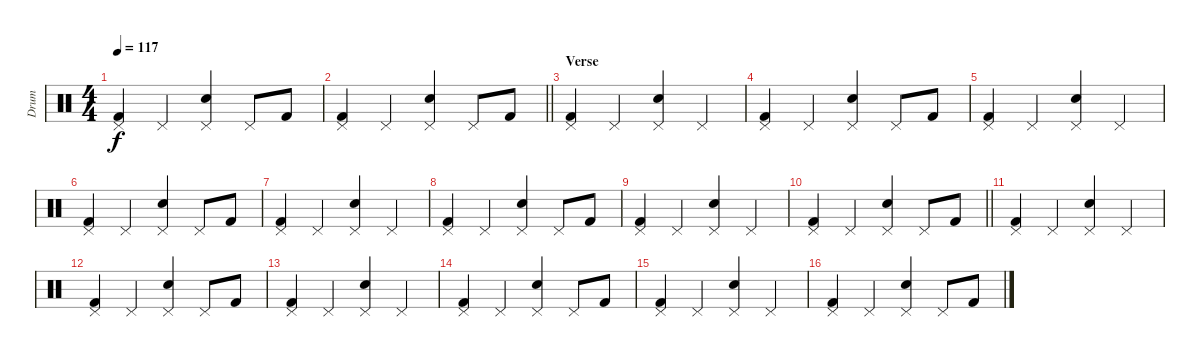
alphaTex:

\track ("Drum" "Drum") {instrument percussion}
\staff {score}
\articulation defaults
\ts (4 4)
\tempo 117
\clef neutral
\ks c
("Pedal Hi-Hat (hit)" "Kick (hit) 2").4{dy f} "Pedal Hi-Hat (hit)".4 ("Pedal Hi-Hat (hit)" "Electric Snare (hit)").4 "Pedal Hi-Hat (hit)".8 "Kick (hit) 2".8 |
\barLineRight lightlight
("Pedal Hi-Hat (hit)" "Kick (hit) 2").4 "Pedal Hi-Hat (hit)".4 ("Pedal Hi-Hat (hit)" "Electric Snare (hit)").4 "Pedal Hi-Hat (hit)".8 "Kick (hit) 2".8 |
\section ("" "Verse")
("Pedal Hi-Hat (hit)" "Kick (hit) 2").4 "Pedal Hi-Hat (hit)".4 ("Pedal Hi-Hat (hit)" "Electric Snare (hit)").4 "Pedal Hi-Hat (hit)".4 |
("Pedal Hi-Hat (hit)" "Kick (hit) 2").4 "Pedal Hi-Hat (hit)".4 ("Pedal Hi-Hat (hit)" "Electric Snare (hit)").4 "Pedal Hi-Hat (hit)".8 "Kick (hit) 2".8 |
("Pedal Hi-Hat (hit)" "Kick (hit) 2").4 "Pedal Hi-Hat (hit)".4 ("Pedal Hi-Hat (hit)" "Electric Snare (hit)").4 "Pedal Hi-Hat (hit)".4 |
("Pedal Hi-Hat (hit)" "Kick (hit) 2").4 "Pedal Hi-Hat (hit)".4 ("Pedal Hi-Hat (hit)" "Electric Snare (hit)").4 "Pedal Hi-Hat (hit)".8 "Kick (hit) 2".8 |
("Pedal Hi-Hat (hit)" "Kick (hit) 2").4 "Pedal Hi-Hat (hit)".4 ("Pedal Hi-Hat (hit)" "Electric Snare (hit)").4 "Pedal Hi-Hat (hit)".4 |
("Pedal Hi-Hat (hit)" "Kick (hit) 2").4 "Pedal Hi-Hat (hit)".4 ("Pedal Hi-Hat (hit)" "Electric Snare (hit)").4 "Pedal Hi-Hat (hit)".8 "Kick (hit) 2".8 |
("Pedal Hi-Hat (hit)" "Kick (hit) 2").4 "Pedal Hi-Hat (hit)".4 ("Pedal Hi-Hat (hit)" "Electric Snare (hit)").4 "Pedal Hi-Hat (hit)".4 |
\barLineRight lightlight
("Pedal Hi-Hat (hit)" "Kick (hit) 2").4 "Pedal Hi-Hat (hit)".4 ("Pedal Hi-Hat (hit)" "Electric Snare (hit)").4 "Pedal Hi-Hat (hit)".8 "Kick (hit) 2".8 |
("Pedal Hi-Hat (hit)" "Kick (hit) 2").4 "Pedal Hi-Hat (hit)".4 ("Pedal Hi-Hat (hit)" "Electric Snare (hit)").4 "Pedal Hi-Hat (hit)".4 |
("Pedal Hi-Hat (hit)" "Kick (hit) 2").4 "Pedal Hi-Hat (hit)".4 ("Pedal Hi-Hat (hit)" "Electric Snare (hit)").4 "Pedal Hi-Hat (hit)".8 "Kick (hit) 2".8 |
("Pedal Hi-Hat (hit)" "Kick (hit) 2").4 "Pedal Hi-Hat (hit)".4 ("Pedal Hi-Hat (hit)" "Electric Snare (hit)").4 "Pedal Hi-Hat (hit)".4 |
("Pedal Hi-Hat (hit)" "Kick (hit) 2").4 "Pedal Hi-Hat (hit)".4 ("Pedal Hi-Hat (hit)" "Electric Snare (hit)").4 "Pedal Hi-Hat (hit)".8 "Kick (hit) 2".8 |
("Pedal Hi-Hat (hit)" "Kick (hit) 2").4 "Pedal Hi-Hat (hit)".4 ("Pedal Hi-Hat (hit)" "Electric Snare (hit)").4 "Pedal Hi-Hat (hit)".4 |
("Pedal Hi-Hat (hit)" "Kick (hit) 2").4 "Pedal Hi-Hat (hit)".4 ("Pedal Hi-Hat (hit)" "Electric Snare (hit)").4 "Pedal Hi-Hat (hit)".8 "Kick (hit) 2".8
